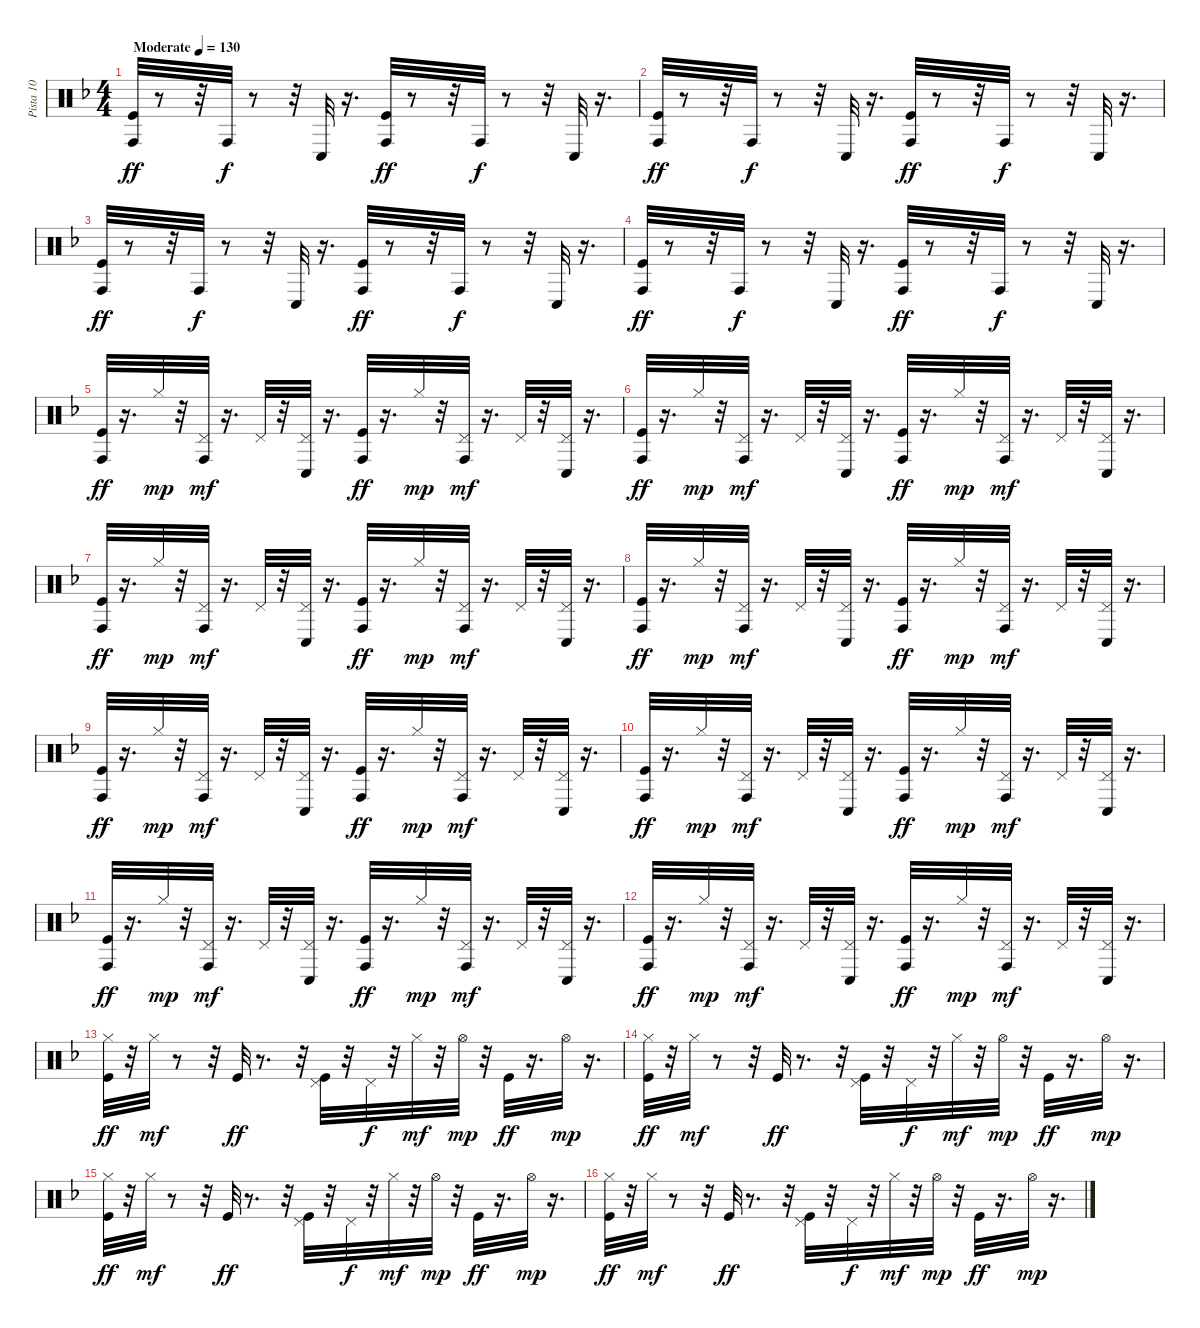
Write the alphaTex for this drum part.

\track ("Pista 10" "Pista 10") {instrument percussion}
\staff {score}
\articulation defaults
\ts (4 4)
\tempo (130 "Moderate")
\clef neutral
\ks dminor
("Conga high (hit)" "Kick (hit)").32{dy ff volume 15 balance 8} r.8 r.32 "Conga high (hit)".32{dy f} r.8 r.32 "Conga low (hit)".32 r.16{d} ("Conga high (hit)" "Kick (hit)").32{dy ff} r.8 r.32 "Conga high (hit)".32{dy f} r.8 r.32 "Conga low (hit)".32 r.16{d} |
("Conga high (hit)" "Kick (hit)").32{dy ff} r.8 r.32 "Conga high (hit)".32{dy f} r.8 r.32 "Conga low (hit)".32 r.16{d} ("Conga high (hit)" "Kick (hit)").32{dy ff} r.8 r.32 "Conga high (hit)".32{dy f} r.8 r.32 "Conga low (hit)".32 r.16{d} |
("Conga high (hit)" "Kick (hit)").32{dy ff} r.8 r.32 "Conga high (hit)".32{dy f} r.8 r.32 "Conga low (hit)".32 r.16{d} ("Conga high (hit)" "Kick (hit)").32{dy ff} r.8 r.32 "Conga high (hit)".32{dy f} r.8 r.32 "Conga low (hit)".32 r.16{d} |
("Conga high (hit)" "Kick (hit)").32{dy ff} r.8 r.32 "Conga high (hit)".32{dy f} r.8 r.32 "Conga low (hit)".32 r.16{d} ("Conga high (hit)" "Kick (hit)").32{dy ff} r.8 r.32 "Conga high (hit)".32{dy f} r.8 r.32 "Conga low (hit)".32 r.16{d} |
("Conga high (hit)" "Kick (hit)").32{dy ff} r.16{d} "Hi-Hat (closed)".32{dy mp} r.32 ("Conga high (hit)" "Pedal Hi-Hat (hit)").32{dy mf} r.16{d} "Pedal Hi-Hat (hit)".32 r.32 ("Conga low (hit)" "Pedal Hi-Hat (hit)").32 r.16{d} ("Conga high (hit)" "Kick (hit)").32{dy ff} r.16{d} "Hi-Hat (closed)".32{dy mp} r.32 ("Conga high (hit)" "Pedal Hi-Hat (hit)").32{dy mf} r.16{d} "Pedal Hi-Hat (hit)".32 r.32 ("Conga low (hit)" "Pedal Hi-Hat (hit)").32 r.16{d} |
("Conga high (hit)" "Kick (hit)").32{dy ff} r.16{d} "Hi-Hat (closed)".32{dy mp} r.32 ("Conga high (hit)" "Pedal Hi-Hat (hit)").32{dy mf} r.16{d} "Pedal Hi-Hat (hit)".32 r.32 ("Conga low (hit)" "Pedal Hi-Hat (hit)").32 r.16{d} ("Conga high (hit)" "Kick (hit)").32{dy ff} r.16{d} "Hi-Hat (closed)".32{dy mp} r.32 ("Conga high (hit)" "Pedal Hi-Hat (hit)").32{dy mf} r.16{d} "Pedal Hi-Hat (hit)".32 r.32 ("Conga low (hit)" "Pedal Hi-Hat (hit)").32 r.16{d} |
("Conga high (hit)" "Kick (hit)").32{dy ff} r.16{d} "Hi-Hat (closed)".32{dy mp} r.32 ("Conga high (hit)" "Pedal Hi-Hat (hit)").32{dy mf} r.16{d} "Pedal Hi-Hat (hit)".32 r.32 ("Conga low (hit)" "Pedal Hi-Hat (hit)").32 r.16{d} ("Conga high (hit)" "Kick (hit)").32{dy ff} r.16{d} "Hi-Hat (closed)".32{dy mp} r.32 ("Conga high (hit)" "Pedal Hi-Hat (hit)").32{dy mf} r.16{d} "Pedal Hi-Hat (hit)".32 r.32 ("Conga low (hit)" "Pedal Hi-Hat (hit)").32 r.16{d} |
("Conga high (hit)" "Kick (hit)").32{dy ff} r.16{d} "Hi-Hat (closed)".32{dy mp} r.32 ("Conga high (hit)" "Pedal Hi-Hat (hit)").32{dy mf} r.16{d} "Pedal Hi-Hat (hit)".32 r.32 ("Conga low (hit)" "Pedal Hi-Hat (hit)").32 r.16{d} ("Conga high (hit)" "Kick (hit)").32{dy ff} r.16{d} "Hi-Hat (closed)".32{dy mp} r.32 ("Conga high (hit)" "Pedal Hi-Hat (hit)").32{dy mf} r.16{d} "Pedal Hi-Hat (hit)".32 r.32 ("Conga low (hit)" "Pedal Hi-Hat (hit)").32 r.16{d} |
("Conga high (hit)" "Kick (hit)").32{dy ff} r.16{d} "Hi-Hat (closed)".32{dy mp} r.32 ("Conga high (hit)" "Pedal Hi-Hat (hit)").32{dy mf} r.16{d} "Pedal Hi-Hat (hit)".32 r.32 ("Conga low (hit)" "Pedal Hi-Hat (hit)").32 r.16{d} ("Conga high (hit)" "Kick (hit)").32{dy ff} r.16{d} "Hi-Hat (closed)".32{dy mp} r.32 ("Conga high (hit)" "Pedal Hi-Hat (hit)").32{dy mf} r.16{d} "Pedal Hi-Hat (hit)".32 r.32 ("Conga low (hit)" "Pedal Hi-Hat (hit)").32 r.16{d} |
("Conga high (hit)" "Kick (hit)").32{dy ff} r.16{d} "Hi-Hat (closed)".32{dy mp} r.32 ("Conga high (hit)" "Pedal Hi-Hat (hit)").32{dy mf} r.16{d} "Pedal Hi-Hat (hit)".32 r.32 ("Conga low (hit)" "Pedal Hi-Hat (hit)").32 r.16{d} ("Conga high (hit)" "Kick (hit)").32{dy ff} r.16{d} "Hi-Hat (closed)".32{dy mp} r.32 ("Conga high (hit)" "Pedal Hi-Hat (hit)").32{dy mf} r.16{d} "Pedal Hi-Hat (hit)".32 r.32 ("Conga low (hit)" "Pedal Hi-Hat (hit)").32 r.16{d} |
("Conga high (hit)" "Kick (hit)").32{dy ff} r.16{d} "Hi-Hat (closed)".32{dy mp} r.32 ("Conga high (hit)" "Pedal Hi-Hat (hit)").32{dy mf} r.16{d} "Pedal Hi-Hat (hit)".32 r.32 ("Conga low (hit)" "Pedal Hi-Hat (hit)").32 r.16{d} ("Conga high (hit)" "Kick (hit)").32{dy ff} r.16{d} "Hi-Hat (closed)".32{dy mp} r.32 ("Conga high (hit)" "Pedal Hi-Hat (hit)").32{dy mf} r.16{d} "Pedal Hi-Hat (hit)".32 r.32 ("Conga low (hit)" "Pedal Hi-Hat (hit)").32 r.16{d} |
("Conga high (hit)" "Kick (hit)").32{dy ff} r.16{d} "Hi-Hat (closed)".32{dy mp} r.32 ("Conga high (hit)" "Pedal Hi-Hat (hit)").32{dy mf} r.16{d} "Pedal Hi-Hat (hit)".32 r.32 ("Conga low (hit)" "Pedal Hi-Hat (hit)").32 r.16{d} ("Conga high (hit)" "Kick (hit)").32{dy ff} r.16{d} "Hi-Hat (closed)".32{dy mp} r.32 ("Conga high (hit)" "Pedal Hi-Hat (hit)").32{dy mf} r.16{d} "Pedal Hi-Hat (hit)".32 r.32 ("Conga low (hit)" "Pedal Hi-Hat (hit)").32 r.16{d} |
("Hi-Hat (closed)" "Kick (hit)").32{dy ff} r.32 "Hi-Hat (closed)".32{dy mf} r.8 r.32 "Kick (hit)".32{dy ff} r.8{d} r.32 ("Pedal Hi-Hat (hit)" "Kick (hit)").32 r.32 "Pedal Hi-Hat (hit)".32{dy f} r.32 "Hi-Hat (closed)".32{dy mf} r.32 "Hi-Hat (open)".32{dy mp} r.32 "Kick (hit)".32{dy ff} r.16{d} "Hi-Hat (open)".32{dy mp} r.16{d} |
("Hi-Hat (closed)" "Kick (hit)").32{dy ff} r.32 "Hi-Hat (closed)".32{dy mf} r.8 r.32 "Kick (hit)".32{dy ff} r.8{d} r.32 ("Pedal Hi-Hat (hit)" "Kick (hit)").32 r.32 "Pedal Hi-Hat (hit)".32{dy f} r.32 "Hi-Hat (closed)".32{dy mf} r.32 "Hi-Hat (open)".32{dy mp} r.32 "Kick (hit)".32{dy ff} r.16{d} "Hi-Hat (open)".32{dy mp} r.16{d} |
("Hi-Hat (closed)" "Kick (hit)").32{dy ff} r.32 "Hi-Hat (closed)".32{dy mf} r.8 r.32 "Kick (hit)".32{dy ff} r.8{d} r.32 ("Pedal Hi-Hat (hit)" "Kick (hit)").32 r.32 "Pedal Hi-Hat (hit)".32{dy f} r.32 "Hi-Hat (closed)".32{dy mf} r.32 "Hi-Hat (open)".32{dy mp} r.32 "Kick (hit)".32{dy ff} r.16{d} "Hi-Hat (open)".32{dy mp} r.16{d} |
("Hi-Hat (closed)" "Kick (hit)").32{dy ff} r.32 "Hi-Hat (closed)".32{dy mf} r.8 r.32 "Kick (hit)".32{dy ff} r.8{d} r.32 ("Pedal Hi-Hat (hit)" "Kick (hit)").32 r.32 "Pedal Hi-Hat (hit)".32{dy f} r.32 "Hi-Hat (closed)".32{dy mf} r.32 "Hi-Hat (open)".32{dy mp} r.32 "Kick (hit)".32{dy ff} r.16{d} "Hi-Hat (open)".32{dy mp} r.16{d}
